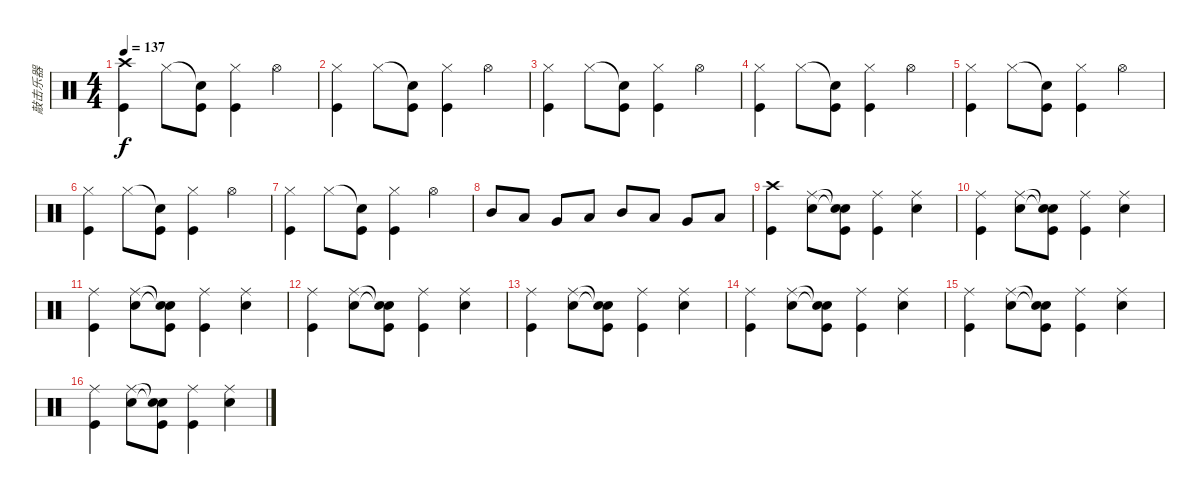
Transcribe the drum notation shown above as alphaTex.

\track ("敲击乐器" "敲击乐器") {instrument percussion}
\staff {score}
\articulation defaults
\ts (4 4)
\tempo 137
\clef neutral
\ks c
("Crash high (hit)" "Kick (hit)").4{dy f} "Hi-Hat (closed)".8 ("Snare (hit)"{t} "Kick (hit)").8 ("Hi-Hat (closed)" "Kick (hit)").4 "Hi-Hat (open)".4 |
("Hi-Hat (closed)" "Kick (hit)").4 "Hi-Hat (closed)".8 ("Snare (hit)"{t} "Kick (hit)").8 ("Hi-Hat (closed)" "Kick (hit)").4 "Hi-Hat (open)".4 |
("Hi-Hat (closed)" "Kick (hit)").4 "Hi-Hat (closed)".8 ("Snare (hit)"{t} "Kick (hit)").8 ("Hi-Hat (closed)" "Kick (hit)").4 "Hi-Hat (open)".4 |
("Hi-Hat (closed)" "Kick (hit)").4 "Hi-Hat (closed)".8 ("Snare (hit)"{t} "Kick (hit)").8 ("Hi-Hat (closed)" "Kick (hit)").4 "Hi-Hat (open)".4 |
("Hi-Hat (closed)" "Kick (hit)").4 "Hi-Hat (closed)".8 ("Snare (hit)"{t} "Kick (hit)").8 ("Hi-Hat (closed)" "Kick (hit)").4 "Hi-Hat (open)".4 |
("Hi-Hat (closed)" "Kick (hit)").4 "Hi-Hat (closed)".8 ("Snare (hit)"{t} "Kick (hit)").8 ("Hi-Hat (closed)" "Kick (hit)").4 "Hi-Hat (open)".4 |
("Hi-Hat (closed)" "Kick (hit)").4 "Hi-Hat (closed)".8 ("Snare (hit)"{t} "Kick (hit)").8 ("Hi-Hat (closed)" "Kick (hit)").4 "Hi-Hat (open)".4 |
"Mid Tom (hit)".8 "Low Tom (hit)".8 "Very Low Tom (hit)".8 "Low Floor Tom (hit)".8 "Mid Tom (hit)".8 "Low Tom (hit)".8 "Very Low Tom (hit)".8 "Low Floor Tom (hit)".8 |
("Crash high (hit)" "Kick (hit)").4 ("Ride (middle)" "Snare (hit) 2").8 ("Snare (hit)"{t} "Snare (hit)"{t} "Kick (hit)").8 ("Ride (middle)" "Kick (hit)").4 ("Ride (middle)" "Snare (hit) 2").4 |
("Ride (middle)" "Kick (hit)").4 ("Ride (middle)" "Snare (hit) 2").8 ("Snare (hit)"{t} "Snare (hit)"{t} "Kick (hit)").8 ("Ride (middle)" "Kick (hit)").4 ("Ride (middle)" "Snare (hit) 2").4 |
("Ride (middle)" "Kick (hit)").4 ("Ride (middle)" "Snare (hit) 2").8 ("Snare (hit)"{t} "Snare (hit)"{t} "Kick (hit)").8 ("Ride (middle)" "Kick (hit)").4 ("Ride (middle)" "Snare (hit) 2").4 |
("Ride (middle)" "Kick (hit)").4 ("Ride (middle)" "Snare (hit) 2").8 ("Snare (hit)"{t} "Snare (hit)"{t} "Kick (hit)").8 ("Ride (middle)" "Kick (hit)").4 ("Ride (middle)" "Snare (hit) 2").4 |
("Ride (middle)" "Kick (hit)").4 ("Ride (middle)" "Snare (hit) 2").8 ("Snare (hit)"{t} "Snare (hit)"{t} "Kick (hit)").8 ("Ride (middle)" "Kick (hit)").4 ("Ride (middle)" "Snare (hit) 2").4 |
("Ride (middle)" "Kick (hit)").4 ("Ride (middle)" "Snare (hit) 2").8 ("Snare (hit)"{t} "Snare (hit)"{t} "Kick (hit)").8 ("Ride (middle)" "Kick (hit)").4 ("Ride (middle)" "Snare (hit) 2").4 |
("Ride (middle)" "Kick (hit)").4 ("Ride (middle)" "Snare (hit) 2").8 ("Snare (hit)"{t} "Snare (hit)"{t} "Kick (hit)").8 ("Ride (middle)" "Kick (hit)").4 ("Ride (middle)" "Snare (hit) 2").4 |
("Ride (middle)" "Kick (hit)").4 ("Ride (middle)" "Snare (hit) 2").8 ("Snare (hit)"{t} "Snare (hit)"{t} "Kick (hit)").8 ("Ride (middle)" "Kick (hit)").4 ("Ride (middle)" "Snare (hit) 2").4
